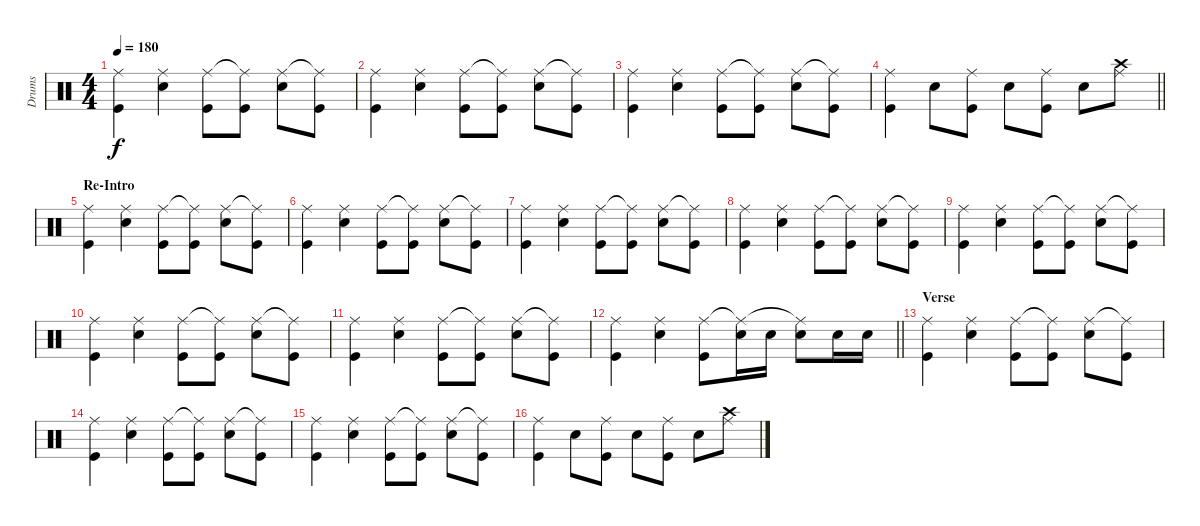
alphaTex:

\track ("Drums" "Drums") {instrument percussion}
\staff {score}
\articulation defaults
\ts (4 4)
\tempo 180
\clef neutral
\ks c
("Kick (hit)" "Ride (middle)").4{dy f} ("Snare (hit) 2" "Ride (middle)").4 ("Kick (hit)" "Ride (middle)").8 ("Kick (hit)" "Ride (middle)"{t}).8 ("Snare (hit) 2" "Ride (middle)").8 ("Kick (hit)" "Ride (middle)"{t}).8 |
("Kick (hit)" "Ride (middle)").4 ("Snare (hit) 2" "Ride (middle)").4 ("Kick (hit)" "Ride (middle)").8 ("Kick (hit)" "Ride (middle)"{t}).8 ("Snare (hit) 2" "Ride (middle)").8 ("Kick (hit)" "Ride (middle)"{t}).8 |
("Kick (hit)" "Ride (middle)").4 ("Snare (hit) 2" "Ride (middle)").4 ("Kick (hit)" "Ride (middle)").8 ("Kick (hit)" "Ride (middle)"{t}).8 ("Snare (hit) 2" "Ride (middle)").8 ("Kick (hit)" "Ride (middle)"{t}).8 |
\barLineRight lightlight
("Kick (hit)" "Ride (middle)").4 "Snare (hit) 2".8 ("Kick (hit)" "Ride (middle)").8 "Snare (hit) 2".8 ("Kick (hit)" "Ride (middle)").8 "Snare (hit) 2".8 ("Crash high (hit)" "Ride (middle)").8 |
\section ("" "Re-Intro")
("Kick (hit)" "Ride (middle)").4 ("Snare (hit) 2" "Ride (middle)").4 ("Kick (hit)" "Ride (middle)").8 ("Kick (hit)" "Ride (middle)"{t}).8 ("Snare (hit) 2" "Ride (middle)").8 ("Kick (hit)" "Ride (middle)"{t}).8 |
("Kick (hit)" "Ride (middle)").4 ("Snare (hit) 2" "Ride (middle)").4 ("Kick (hit)" "Ride (middle)").8 ("Kick (hit)" "Ride (middle)"{t}).8 ("Snare (hit) 2" "Ride (middle)").8 ("Kick (hit)" "Ride (middle)"{t}).8 |
("Kick (hit)" "Ride (middle)").4 ("Snare (hit) 2" "Ride (middle)").4 ("Kick (hit)" "Ride (middle)").8 ("Kick (hit)" "Ride (middle)"{t}).8 ("Snare (hit) 2" "Ride (middle)").8 ("Kick (hit)" "Ride (middle)"{t}).8 |
("Kick (hit)" "Ride (middle)").4 ("Snare (hit) 2" "Ride (middle)").4 ("Kick (hit)" "Ride (middle)").8 ("Kick (hit)" "Ride (middle)"{t}).8 ("Snare (hit) 2" "Ride (middle)").8 ("Kick (hit)" "Ride (middle)"{t}).8 |
("Kick (hit)" "Ride (middle)").4 ("Snare (hit) 2" "Ride (middle)").4 ("Kick (hit)" "Ride (middle)").8 ("Kick (hit)" "Ride (middle)"{t}).8 ("Snare (hit) 2" "Ride (middle)").8 ("Kick (hit)" "Ride (middle)"{t}).8 |
("Kick (hit)" "Ride (middle)").4 ("Snare (hit) 2" "Ride (middle)").4 ("Kick (hit)" "Ride (middle)").8 ("Kick (hit)" "Ride (middle)"{t}).8 ("Snare (hit) 2" "Ride (middle)").8 ("Kick (hit)" "Ride (middle)"{t}).8 |
("Kick (hit)" "Ride (middle)").4 ("Snare (hit) 2" "Ride (middle)").4 ("Kick (hit)" "Ride (middle)").8 ("Kick (hit)" "Ride (middle)"{t}).8 ("Snare (hit) 2" "Ride (middle)").8 ("Kick (hit)" "Ride (middle)"{t}).8 |
\barLineRight lightlight
("Kick (hit)" "Ride (middle)").4 ("Snare (hit) 2" "Ride (middle)").4 ("Kick (hit)" "Ride (middle)").8 ("Snare (hit) 2" "Ride (middle)"{t}).16 "Snare (hit) 2".16 ("Snare (hit) 2" "Ride (middle)"{t}).8 "Snare (hit) 2".16 "Snare (hit) 2".16 |
\section ("" "Verse")
("Kick (hit)" "Ride (middle)").4 ("Snare (hit) 2" "Ride (middle)").4 ("Kick (hit)" "Ride (middle)").8 ("Kick (hit)" "Ride (middle)"{t}).8 ("Snare (hit) 2" "Ride (middle)").8 ("Kick (hit)" "Ride (middle)"{t}).8 |
("Kick (hit)" "Ride (middle)").4 ("Snare (hit) 2" "Ride (middle)").4 ("Kick (hit)" "Ride (middle)").8 ("Kick (hit)" "Ride (middle)"{t}).8 ("Snare (hit) 2" "Ride (middle)").8 ("Kick (hit)" "Ride (middle)"{t}).8 |
("Kick (hit)" "Ride (middle)").4 ("Snare (hit) 2" "Ride (middle)").4 ("Kick (hit)" "Ride (middle)").8 ("Kick (hit)" "Ride (middle)"{t}).8 ("Snare (hit) 2" "Ride (middle)").8 ("Kick (hit)" "Ride (middle)"{t}).8 |
("Kick (hit)" "Ride (middle)").4 "Snare (hit) 2".8 ("Kick (hit)" "Ride (middle)").8 "Snare (hit) 2".8 ("Kick (hit)" "Ride (middle)").8 "Snare (hit) 2".8 ("Crash high (hit)" "Ride (middle)").8
